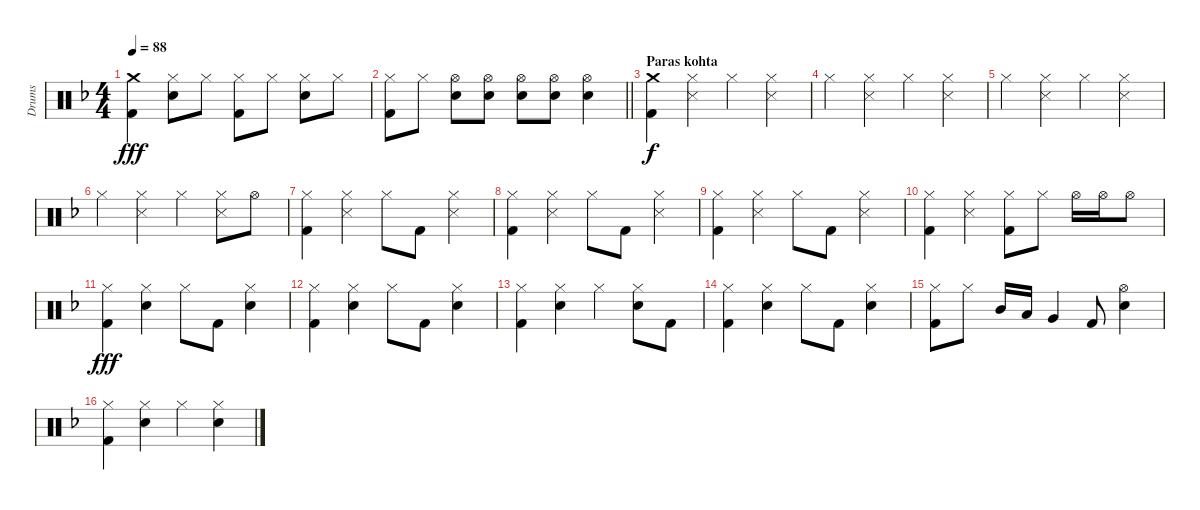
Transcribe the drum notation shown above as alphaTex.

\track ("Drums" "Drums") {instrument percussion}
\staff {score}
\articulation defaults
\ts (4 4)
\tempo 88
\clef neutral
\ks dminor
("Crash medium (hit)" "Kick (hit) 2").4{dy fff} ("Hi-Hat (closed)" "Snare (hit) 2").8 "Hi-Hat (closed)".8 ("Hi-Hat (closed)" "Kick (hit) 2").8 "Hi-Hat (closed)".8 ("Hi-Hat (closed)" "Snare (hit) 2").8 "Hi-Hat (closed)".8 |
\barLineRight lightlight
("Hi-Hat (closed)" "Kick (hit) 2").8 "Hi-Hat (closed)".8 ("Hi-Hat (open)" "Snare (hit) 2").8 ("Hi-Hat (open)" "Snare (hit) 2").8 ("Hi-Hat (open)" "Snare (hit) 2").8 ("Hi-Hat (open)" "Snare (hit) 2").8 ("Hi-Hat (open)" "Snare (hit) 2").4 |
\section ("" "Paras kohta")
("Crash medium (hit)" "Kick (hit) 2").4{dy f} ("Hi-Hat (closed)" "Snare (side stick) 3").4 "Hi-Hat (closed)".4 ("Hi-Hat (closed)" "Snare (side stick) 3").4 |
"Hi-Hat (closed)".4 ("Hi-Hat (closed)" "Snare (side stick) 3").4 "Hi-Hat (closed)".4 ("Hi-Hat (closed)" "Snare (side stick) 3").4 |
"Hi-Hat (closed)".4 ("Hi-Hat (closed)" "Snare (side stick) 3").4 "Hi-Hat (closed)".4 ("Hi-Hat (closed)" "Snare (side stick) 3").4 |
"Hi-Hat (closed)".4 ("Hi-Hat (closed)" "Snare (side stick) 3").4 "Hi-Hat (closed)".4 ("Hi-Hat (closed)" "Snare (side stick) 3").8 "Hi-Hat (open)".8 |
("Hi-Hat (closed)" "Kick (hit) 2").4 ("Hi-Hat (closed)" "Snare (side stick) 3").4 "Hi-Hat (closed)".8 "Kick (hit) 2".8 ("Hi-Hat (closed)" "Snare (side stick) 3").4 |
("Hi-Hat (closed)" "Kick (hit) 2").4 ("Hi-Hat (closed)" "Snare (side stick) 3").4 "Hi-Hat (closed)".8 "Kick (hit) 2".8 ("Hi-Hat (closed)" "Snare (side stick) 3").4 |
("Hi-Hat (closed)" "Kick (hit) 2").4 ("Hi-Hat (closed)" "Snare (side stick) 3").4 "Hi-Hat (closed)".8 "Kick (hit) 2".8 ("Hi-Hat (closed)" "Snare (side stick) 3").4 |
("Hi-Hat (closed)" "Kick (hit) 2").4 ("Hi-Hat (closed)" "Snare (side stick) 3").4 ("Hi-Hat (closed)" "Kick (hit) 2").8 "Hi-Hat (closed)".8 "Hi-Hat (open)".16 "Hi-Hat (open)".16 "Hi-Hat (open)".8 |
("Hi-Hat (closed)" "Kick (hit) 2").4{dy fff} ("Hi-Hat (closed)" "Snare (hit) 2").4 "Hi-Hat (closed)".8 "Kick (hit) 2".8 ("Hi-Hat (closed)" "Snare (hit) 2").4 |
("Hi-Hat (closed)" "Kick (hit) 2").4 ("Hi-Hat (closed)" "Snare (hit) 2").4 "Hi-Hat (closed)".8 "Kick (hit) 2".8 ("Hi-Hat (closed)" "Snare (hit) 2").4 |
("Hi-Hat (closed)" "Kick (hit) 2").4 ("Hi-Hat (closed)" "Snare (hit) 2").4 "Hi-Hat (closed)".4 ("Hi-Hat (closed)" "Snare (hit) 2").8 "Kick (hit) 2".8 |
("Hi-Hat (closed)" "Kick (hit) 2").4 ("Hi-Hat (closed)" "Snare (hit) 2").4 "Hi-Hat (closed)".8 "Kick (hit) 2".8 ("Hi-Hat (closed)" "Snare (hit) 2").4 |
("Hi-Hat (closed)" "Kick (hit) 2").8 "Hi-Hat (closed)".8 "Mid Tom (hit)".16 "Low Tom (hit)".16 "Very Low Tom (hit)".4 "Kick (hit) 2".8 ("Hi-Hat (open)" "Snare (hit) 2").4 |
("Hi-Hat (closed)" "Kick (hit) 2").4 ("Hi-Hat (closed)" "Snare (hit) 2").4 "Hi-Hat (closed)".4 ("Hi-Hat (closed)" "Snare (hit) 2").4
